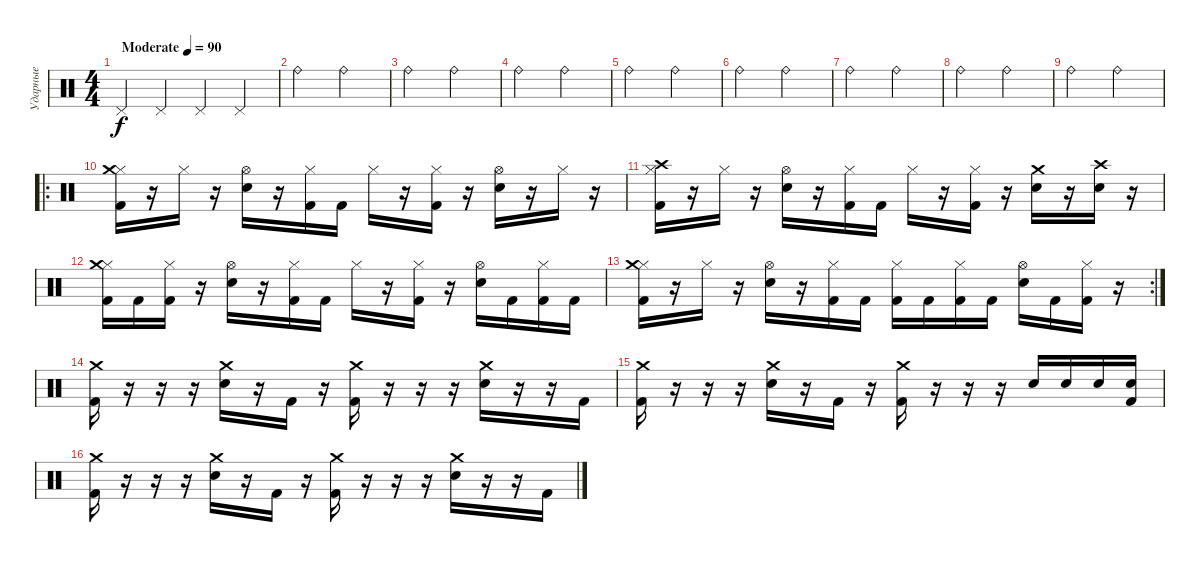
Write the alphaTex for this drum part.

\track ("Ударные" "Ударные") {instrument percussion}
\staff {score}
\articulation defaults
\ts (4 4)
\tempo (90 "Moderate")
\clef neutral
\ks c "Pedal Hi-Hat (hit)".4{dy f} "Pedal Hi-Hat (hit)".4 "Pedal Hi-Hat (hit)".4 "Pedal Hi-Hat (hit)".4
|
"Ride (bell)".2 "Ride (bell)".2 |
"Ride (bell)".2 "Ride (bell)".2 |
"Ride (bell)".2 "Ride (bell)".2 |
"Ride (bell)".2 "Ride (bell)".2 |
"Ride (bell)".2 "Ride (bell)".2 |
"Ride (bell)".2 "Ride (bell)".2 |
"Ride (bell)".2 "Ride (bell)".2 |
"Ride (bell)".2 "Ride (bell)".2 |
\ro
("Hi-Hat (closed)" "Crash medium (hit)" "Kick (hit) 2").16 r.16 "Hi-Hat (closed)".16 r.16 ("Hi-Hat (open)" "Snare (hit) 2").16 r.16 ("Hi-Hat (closed)" "Kick (hit) 2").16 "Kick (hit) 2".16 "Hi-Hat (closed)".16 r.16 ("Hi-Hat (closed)" "Kick (hit) 2").16 r.16 ("Hi-Hat (open)" "Snare (hit) 2").16 r.16 "Hi-Hat (closed)".16 r.16 |
("Hi-Hat (closed)" "Crash high (hit)" "Kick (hit) 2").16 r.16 "Hi-Hat (closed)".16 r.16 ("Hi-Hat (open)" "Snare (hit) 2").16 r.16 ("Hi-Hat (closed)" "Kick (hit) 2").16 "Kick (hit) 2".16 "Hi-Hat (closed)".16 r.16 ("Hi-Hat (closed)" "Kick (hit) 2").16 r.16 ("Snare (hit) 2" "Crash medium (hit)").16 r.16 ("Snare (hit) 2" "Crash high (hit)").16 r.16 |
("Hi-Hat (closed)" "Crash medium (hit)" "Kick (hit) 2").16 "Kick (hit) 2".16 ("Hi-Hat (closed)" "Kick (hit) 2").16 r.16 ("Hi-Hat (open)" "Snare (hit) 2").16 r.16 ("Hi-Hat (closed)" "Kick (hit) 2").16 "Kick (hit) 2".16 "Hi-Hat (closed)".16 r.16 ("Hi-Hat (closed)" "Kick (hit) 2").16 r.16 ("Hi-Hat (open)" "Snare (hit) 2").16 "Kick (hit) 2".16 ("Hi-Hat (closed)" "Kick (hit) 2").16 "Kick (hit) 2".16 |
\rc 2
("Hi-Hat (closed)" "Crash medium (hit)" "Kick (hit) 2").16 r.16 "Hi-Hat (closed)".16 r.16 ("Hi-Hat (open)" "Snare (hit) 2").16 r.16 ("Hi-Hat (closed)" "Kick (hit) 2").16 "Kick (hit) 2".16 ("Hi-Hat (closed)" "Kick (hit) 2").16 "Kick (hit) 2".16 ("Hi-Hat (closed)" "Kick (hit) 2").16 "Kick (hit) 2".16 ("Hi-Hat (open)" "Snare (hit) 2").16 "Kick (hit) 2".16 ("Hi-Hat (closed)" "Kick (hit) 2").16 r.16 |
("Crash medium (hit)" "Kick (hit) 2").16 r.16 r.16 r.16 ("Crash medium (hit)" "Snare (hit) 2").16 r.16 "Kick (hit) 2".16 r.16 ("Crash medium (hit)" "Kick (hit) 2").16 r.16 r.16 r.16 ("Crash medium (hit)" "Snare (hit) 2").16 r.16 r.16 "Kick (hit) 2".16 |
("Crash medium (hit)" "Kick (hit) 2").16 r.16 r.16 r.16 ("Crash medium (hit)" "Snare (hit) 2").16 r.16 "Kick (hit) 2".16 r.16 ("Crash medium (hit)" "Kick (hit) 2").16 r.16 r.16 r.16 "Snare (hit) 2".16 "Snare (hit) 2".16 "Snare (hit) 2".16 ("Snare (hit) 2" "Kick (hit) 2").16 |
("Crash medium (hit)" "Kick (hit) 2").16 r.16 r.16 r.16 ("Crash medium (hit)" "Snare (hit) 2").16 r.16 "Kick (hit) 2".16 r.16 ("Crash medium (hit)" "Kick (hit) 2").16 r.16 r.16 r.16 ("Crash medium (hit)" "Snare (hit) 2").16 r.16 r.16 "Kick (hit) 2".16
